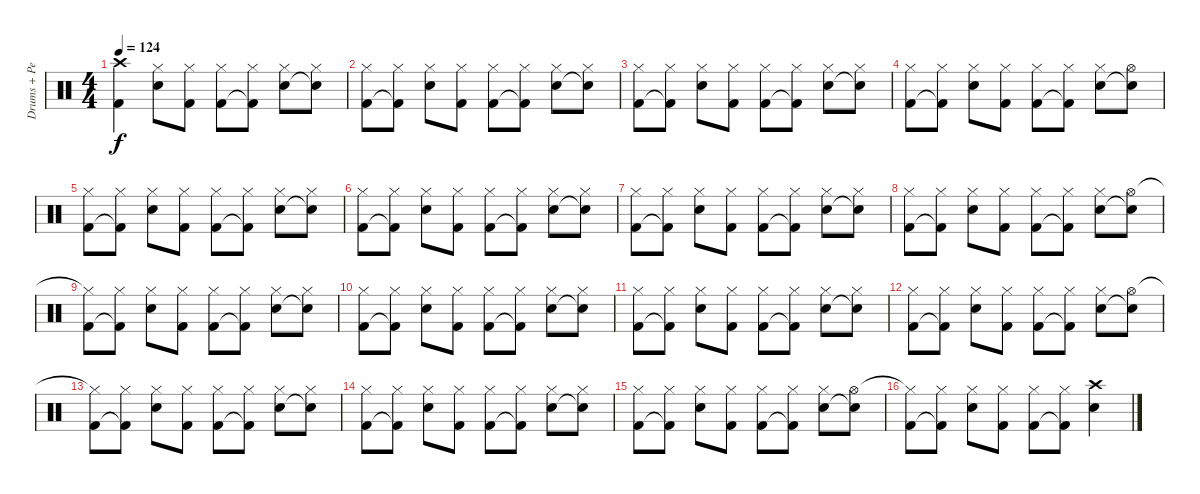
\track ("Drums + Percussions (Bill Berry)" "Drums + Pe") {instrument percussion}
\staff {score}
\articulation defaults
\ts (4 4)
\tempo 124
\clef neutral
\ks c
("Crash high (hit)" "Kick (hit) 2").4{dy f} ("Hi-Hat (closed)" "Snare (hit) 2").8 ("Hi-Hat (closed)" "Kick (hit) 2").8 ("Hi-Hat (closed)" "Kick (hit) 2").8 ("Hi-Hat (closed)" "Kick (hit) 2"{t}).8 ("Hi-Hat (closed)" "Snare (hit) 2").8 ("Hi-Hat (closed)" "Snare (hit) 2"{t}).8 |
("Hi-Hat (closed)" "Kick (hit) 2").8 ("Hi-Hat (closed)" "Kick (hit) 2"{t}).8 ("Hi-Hat (closed)" "Snare (hit) 2").8 ("Hi-Hat (closed)" "Kick (hit) 2").8 ("Hi-Hat (closed)" "Kick (hit) 2").8 ("Hi-Hat (closed)" "Kick (hit) 2"{t}).8 ("Hi-Hat (closed)" "Snare (hit) 2").8 ("Hi-Hat (closed)" "Snare (hit) 2"{t}).8 |
("Hi-Hat (closed)" "Kick (hit) 2").8 ("Hi-Hat (closed)" "Kick (hit) 2"{t}).8 ("Hi-Hat (closed)" "Snare (hit) 2").8 ("Hi-Hat (closed)" "Kick (hit) 2").8 ("Hi-Hat (closed)" "Kick (hit) 2").8 ("Hi-Hat (closed)" "Kick (hit) 2"{t}).8 ("Hi-Hat (closed)" "Snare (hit) 2").8 ("Hi-Hat (closed)" "Snare (hit) 2"{t}).8 |
("Hi-Hat (closed)" "Kick (hit) 2").8 ("Hi-Hat (closed)" "Kick (hit) 2"{t}).8 ("Hi-Hat (closed)" "Snare (hit) 2").8 ("Hi-Hat (closed)" "Kick (hit) 2").8 ("Hi-Hat (closed)" "Kick (hit) 2").8 ("Hi-Hat (closed)" "Kick (hit) 2"{t}).8 ("Hi-Hat (closed)" "Snare (hit) 2").8 ("Hi-Hat (open)" "Snare (hit) 2"{t}).8 |
("Hi-Hat (closed)" "Kick (hit) 2").8 ("Hi-Hat (closed)" "Kick (hit) 2"{t}).8 ("Hi-Hat (closed)" "Snare (hit) 2").8 ("Hi-Hat (closed)" "Kick (hit) 2").8 ("Hi-Hat (closed)" "Kick (hit) 2").8 ("Hi-Hat (closed)" "Kick (hit) 2"{t}).8 ("Hi-Hat (closed)" "Snare (hit) 2").8 ("Hi-Hat (closed)" "Snare (hit) 2"{t}).8 |
("Hi-Hat (closed)" "Kick (hit) 2").8 ("Hi-Hat (closed)" "Kick (hit) 2"{t}).8 ("Hi-Hat (closed)" "Snare (hit) 2").8 ("Hi-Hat (closed)" "Kick (hit) 2").8 ("Hi-Hat (closed)" "Kick (hit) 2").8 ("Hi-Hat (closed)" "Kick (hit) 2"{t}).8 ("Hi-Hat (closed)" "Snare (hit) 2").8 ("Hi-Hat (closed)" "Snare (hit) 2"{t}).8 |
("Hi-Hat (closed)" "Kick (hit) 2").8 ("Hi-Hat (closed)" "Kick (hit) 2"{t}).8 ("Hi-Hat (closed)" "Snare (hit) 2").8 ("Hi-Hat (closed)" "Kick (hit) 2").8 ("Hi-Hat (closed)" "Kick (hit) 2").8 ("Hi-Hat (closed)" "Kick (hit) 2"{t}).8 ("Hi-Hat (closed)" "Snare (hit) 2").8 ("Hi-Hat (closed)" "Snare (hit) 2"{t}).8 |
("Hi-Hat (closed)" "Kick (hit) 2").8 ("Hi-Hat (closed)" "Kick (hit) 2"{t}).8 ("Hi-Hat (closed)" "Snare (hit) 2").8 ("Hi-Hat (closed)" "Kick (hit) 2").8 ("Hi-Hat (closed)" "Kick (hit) 2").8 ("Hi-Hat (closed)" "Kick (hit) 2"{t}).8 ("Hi-Hat (closed)" "Snare (hit) 2").8 ("Hi-Hat (open)" "Snare (hit) 2"{t}).8 |
("Hi-Hat (closed)"{t} "Kick (hit) 2").8 ("Hi-Hat (closed)" "Kick (hit) 2"{t}).8 ("Hi-Hat (closed)" "Snare (hit) 2").8 ("Hi-Hat (closed)" "Kick (hit) 2").8 ("Hi-Hat (closed)" "Kick (hit) 2").8 ("Hi-Hat (closed)" "Kick (hit) 2"{t}).8 ("Hi-Hat (closed)" "Snare (hit) 2").8 ("Hi-Hat (closed)" "Snare (hit) 2"{t}).8 |
("Hi-Hat (closed)" "Kick (hit) 2").8 ("Hi-Hat (closed)" "Kick (hit) 2"{t}).8 ("Hi-Hat (closed)" "Snare (hit) 2").8 ("Hi-Hat (closed)" "Kick (hit) 2").8 ("Hi-Hat (closed)" "Kick (hit) 2").8 ("Hi-Hat (closed)" "Kick (hit) 2"{t}).8 ("Hi-Hat (closed)" "Snare (hit) 2").8 ("Hi-Hat (closed)" "Snare (hit) 2"{t}).8 |
("Hi-Hat (closed)" "Kick (hit) 2").8 ("Hi-Hat (closed)" "Kick (hit) 2"{t}).8 ("Hi-Hat (closed)" "Snare (hit) 2").8 ("Hi-Hat (closed)" "Kick (hit) 2").8 ("Hi-Hat (closed)" "Kick (hit) 2").8 ("Hi-Hat (closed)" "Kick (hit) 2"{t}).8 ("Hi-Hat (closed)" "Snare (hit) 2").8 ("Hi-Hat (closed)" "Snare (hit) 2"{t}).8 |
("Hi-Hat (closed)" "Kick (hit) 2").8 ("Hi-Hat (closed)" "Kick (hit) 2"{t}).8 ("Hi-Hat (closed)" "Snare (hit) 2").8 ("Hi-Hat (closed)" "Kick (hit) 2").8 ("Hi-Hat (closed)" "Kick (hit) 2").8 ("Hi-Hat (closed)" "Kick (hit) 2"{t}).8 ("Hi-Hat (closed)" "Snare (hit) 2").8 ("Hi-Hat (open)" "Snare (hit) 2"{t}).8 |
("Hi-Hat (closed)"{t} "Kick (hit) 2").8 ("Hi-Hat (closed)" "Kick (hit) 2"{t}).8 ("Hi-Hat (closed)" "Snare (hit) 2").8 ("Hi-Hat (closed)" "Kick (hit) 2").8 ("Hi-Hat (closed)" "Kick (hit) 2").8 ("Hi-Hat (closed)" "Kick (hit) 2"{t}).8 ("Hi-Hat (closed)" "Snare (hit) 2").8 ("Hi-Hat (closed)" "Snare (hit) 2"{t}).8 |
("Hi-Hat (closed)" "Kick (hit) 2").8 ("Hi-Hat (closed)" "Kick (hit) 2"{t}).8 ("Hi-Hat (closed)" "Snare (hit) 2").8 ("Hi-Hat (closed)" "Kick (hit) 2").8 ("Hi-Hat (closed)" "Kick (hit) 2").8 ("Hi-Hat (closed)" "Kick (hit) 2"{t}).8 ("Hi-Hat (closed)" "Snare (hit) 2").8 ("Hi-Hat (closed)" "Snare (hit) 2"{t}).8 |
("Hi-Hat (closed)" "Kick (hit) 2").8 ("Hi-Hat (closed)" "Kick (hit) 2"{t}).8 ("Hi-Hat (closed)" "Snare (hit) 2").8 ("Hi-Hat (closed)" "Kick (hit) 2").8 ("Hi-Hat (closed)" "Kick (hit) 2").8 ("Hi-Hat (closed)" "Kick (hit) 2"{t}).8 ("Hi-Hat (closed)" "Snare (hit) 2").8 ("Hi-Hat (open)" "Snare (hit) 2"{t}).8 |
("Hi-Hat (closed)"{t} "Kick (hit) 2").8 ("Hi-Hat (closed)" "Kick (hit) 2"{t}).8 ("Hi-Hat (closed)" "Snare (hit) 2").8 ("Hi-Hat (closed)" "Kick (hit) 2").8 ("Hi-Hat (closed)" "Kick (hit) 2").8 ("Hi-Hat (closed)" "Kick (hit) 2"{t}).8 ("Crash high (hit)" "Snare (hit) 2").4
